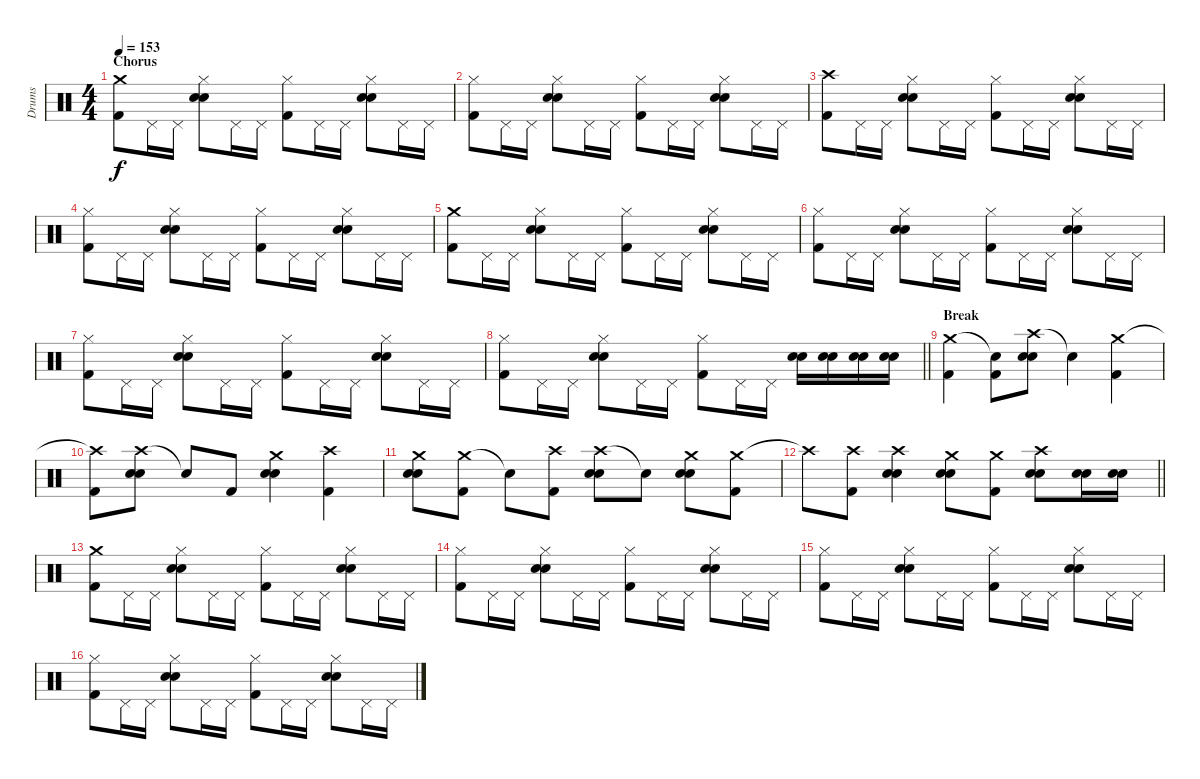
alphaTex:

\track ("Drums" "Drums") {instrument percussion}
\staff {score}
\articulation defaults
\ts (4 4)
\section ("" "Chorus")
\tempo 153
\clef neutral
\ks c
("Crash medium (hit)" "Kick (hit) 2").8{dy f} "Pedal Hi-Hat (hit)".16 "Pedal Hi-Hat (hit)".16 ("Hi-Hat (closed)" "Electric Snare (hit)" "Snare (hit) 2").8 "Pedal Hi-Hat (hit)".16 "Pedal Hi-Hat (hit)".16 ("Hi-Hat (closed)" "Kick (hit) 2").8 "Pedal Hi-Hat (hit)".16 "Pedal Hi-Hat (hit)".16 ("Hi-Hat (closed)" "Electric Snare (hit)" "Snare (hit) 2").8 "Pedal Hi-Hat (hit)".16 "Pedal Hi-Hat (hit)".16 |
("Hi-Hat (closed)" "Kick (hit) 2").8 "Pedal Hi-Hat (hit)".16 "Pedal Hi-Hat (hit)".16 ("Hi-Hat (closed)" "Electric Snare (hit)" "Snare (hit) 2").8 "Pedal Hi-Hat (hit)".16 "Pedal Hi-Hat (hit)".16 ("Hi-Hat (closed)" "Kick (hit) 2").8 "Pedal Hi-Hat (hit)".16 "Pedal Hi-Hat (hit)".16 ("Hi-Hat (closed)" "Electric Snare (hit)" "Snare (hit) 2").8 "Pedal Hi-Hat (hit)".16 "Pedal Hi-Hat (hit)".16 |
("Crash high (hit)" "Kick (hit) 2").8 "Pedal Hi-Hat (hit)".16 "Pedal Hi-Hat (hit)".16 ("Hi-Hat (closed)" "Electric Snare (hit)" "Snare (hit) 2").8 "Pedal Hi-Hat (hit)".16 "Pedal Hi-Hat (hit)".16 ("Hi-Hat (closed)" "Kick (hit) 2").8 "Pedal Hi-Hat (hit)".16 "Pedal Hi-Hat (hit)".16 ("Hi-Hat (closed)" "Electric Snare (hit)" "Snare (hit) 2").8 "Pedal Hi-Hat (hit)".16 "Pedal Hi-Hat (hit)".16 |
("Hi-Hat (closed)" "Kick (hit) 2").8 "Pedal Hi-Hat (hit)".16 "Pedal Hi-Hat (hit)".16 ("Hi-Hat (closed)" "Electric Snare (hit)" "Snare (hit) 2").8 "Pedal Hi-Hat (hit)".16 "Pedal Hi-Hat (hit)".16 ("Hi-Hat (closed)" "Kick (hit) 2").8 "Pedal Hi-Hat (hit)".16 "Pedal Hi-Hat (hit)".16 ("Hi-Hat (closed)" "Electric Snare (hit)" "Snare (hit) 2").8 "Pedal Hi-Hat (hit)".16 "Pedal Hi-Hat (hit)".16 |
("Crash medium (hit)" "Kick (hit) 2").8 "Pedal Hi-Hat (hit)".16 "Pedal Hi-Hat (hit)".16 ("Hi-Hat (closed)" "Electric Snare (hit)" "Snare (hit) 2").8 "Pedal Hi-Hat (hit)".16 "Pedal Hi-Hat (hit)".16 ("Hi-Hat (closed)" "Kick (hit) 2").8 "Pedal Hi-Hat (hit)".16 "Pedal Hi-Hat (hit)".16 ("Hi-Hat (closed)" "Electric Snare (hit)" "Snare (hit) 2").8 "Pedal Hi-Hat (hit)".16 "Pedal Hi-Hat (hit)".16 |
("Hi-Hat (closed)" "Kick (hit) 2").8 "Pedal Hi-Hat (hit)".16 "Pedal Hi-Hat (hit)".16 ("Hi-Hat (closed)" "Electric Snare (hit)" "Snare (hit) 2").8 "Pedal Hi-Hat (hit)".16 "Pedal Hi-Hat (hit)".16 ("Hi-Hat (closed)" "Kick (hit) 2").8 "Pedal Hi-Hat (hit)".16 "Pedal Hi-Hat (hit)".16 ("Hi-Hat (closed)" "Electric Snare (hit)" "Snare (hit) 2").8 "Pedal Hi-Hat (hit)".16 "Pedal Hi-Hat (hit)".16 |
("Hi-Hat (closed)" "Kick (hit) 2").8 "Pedal Hi-Hat (hit)".16 "Pedal Hi-Hat (hit)".16 ("Hi-Hat (closed)" "Electric Snare (hit)" "Snare (hit) 2").8 "Pedal Hi-Hat (hit)".16 "Pedal Hi-Hat (hit)".16 ("Hi-Hat (closed)" "Kick (hit) 2").8 "Pedal Hi-Hat (hit)".16 "Pedal Hi-Hat (hit)".16 ("Hi-Hat (closed)" "Electric Snare (hit)" "Snare (hit) 2").8 "Pedal Hi-Hat (hit)".16 "Pedal Hi-Hat (hit)".16 |
\barLineRight lightlight
("Hi-Hat (closed)" "Kick (hit) 2").8 "Pedal Hi-Hat (hit)".16 "Pedal Hi-Hat (hit)".16 ("Hi-Hat (closed)" "Electric Snare (hit)" "Snare (hit) 2").8 "Pedal Hi-Hat (hit)".16 "Pedal Hi-Hat (hit)".16 ("Hi-Hat (closed)" "Kick (hit) 2").8 "Pedal Hi-Hat (hit)".16 "Pedal Hi-Hat (hit)".16 ("Electric Snare (hit)" "Snare (hit) 2").16 ("Electric Snare (hit)" "Snare (hit) 2").16 ("Electric Snare (hit)" "Snare (hit) 2").16 ("Electric Snare (hit)" "Snare (hit) 2").16 |
\section ("" "Break")
("Crash medium (hit)" "Kick (hit) 2").4 ("Snare (hit)"{t} "Kick (hit) 2").8 ("Crash high (hit)" "Electric Snare (hit)" "Snare (hit) 2").8 "Snare (hit)"{t}.4 ("Crash medium (hit)" "Kick (hit) 2").4 |
("Crash high (hit)"{t} "Kick (hit) 2").8 ("Crash high (hit)" "Electric Snare (hit)" "Snare (hit) 2").8 "Snare (hit)"{t}.8 "Kick (hit) 2".8 ("Crash medium (hit)" "Electric Snare (hit)" "Snare (hit) 2").4 ("Crash high (hit)" "Kick (hit) 2").4 |
("Crash medium (hit)" "Electric Snare (hit)" "Snare (hit) 2").8 ("Crash medium (hit)" "Kick (hit) 2").8 "Snare (hit)"{t}.8 ("Crash high (hit)" "Kick (hit) 2").8 ("Crash high (hit)" "Electric Snare (hit)" "Snare (hit) 2").8 "Snare (hit)"{t}.8 ("Crash medium (hit)" "Electric Snare (hit)" "Snare (hit) 2").8 ("Crash medium (hit)" "Kick (hit) 2").8 |
\barLineRight lightlight "Crash high (hit)"{t}.8
("Crash high (hit)" "Kick (hit) 2").8 ("Crash high (hit)" "Electric Snare (hit)" "Snare (hit) 2").4 ("Crash medium (hit)" "Electric Snare (hit)" "Snare (hit) 2").8 ("Crash medium (hit)" "Kick (hit) 2").8 ("Crash high (hit)" "Electric Snare (hit)" "Snare (hit) 2").8 ("Electric Snare (hit)" "Snare (hit) 2").16 ("Electric Snare (hit)" "Snare (hit) 2").16 |
\section ("" "")
("Crash medium (hit)" "Kick (hit) 2").8 "Pedal Hi-Hat (hit)".16 "Pedal Hi-Hat (hit)".16 ("Hi-Hat (closed)" "Electric Snare (hit)" "Snare (hit) 2").8 "Pedal Hi-Hat (hit)".16 "Pedal Hi-Hat (hit)".16 ("Hi-Hat (closed)" "Kick (hit) 2").8 "Pedal Hi-Hat (hit)".16 "Pedal Hi-Hat (hit)".16 ("Hi-Hat (closed)" "Electric Snare (hit)" "Snare (hit) 2").8 "Pedal Hi-Hat (hit)".16 "Pedal Hi-Hat (hit)".16 |
("Hi-Hat (closed)" "Kick (hit) 2").8 "Pedal Hi-Hat (hit)".16 "Pedal Hi-Hat (hit)".16 ("Hi-Hat (closed)" "Electric Snare (hit)" "Snare (hit) 2").8 "Pedal Hi-Hat (hit)".16 "Pedal Hi-Hat (hit)".16 ("Hi-Hat (closed)" "Kick (hit) 2").8 "Pedal Hi-Hat (hit)".16 "Pedal Hi-Hat (hit)".16 ("Hi-Hat (closed)" "Electric Snare (hit)" "Snare (hit) 2").8 "Pedal Hi-Hat (hit)".16 "Pedal Hi-Hat (hit)".16 |
("Hi-Hat (closed)" "Kick (hit) 2").8 "Pedal Hi-Hat (hit)".16 "Pedal Hi-Hat (hit)".16 ("Hi-Hat (closed)" "Electric Snare (hit)" "Snare (hit) 2").8 "Pedal Hi-Hat (hit)".16 "Pedal Hi-Hat (hit)".16 ("Hi-Hat (closed)" "Kick (hit) 2").8 "Pedal Hi-Hat (hit)".16 "Pedal Hi-Hat (hit)".16 ("Hi-Hat (closed)" "Electric Snare (hit)" "Snare (hit) 2").8 "Pedal Hi-Hat (hit)".16 "Pedal Hi-Hat (hit)".16 |
("Hi-Hat (closed)" "Kick (hit) 2").8 "Pedal Hi-Hat (hit)".16 "Pedal Hi-Hat (hit)".16 ("Hi-Hat (closed)" "Electric Snare (hit)" "Snare (hit) 2").8 "Pedal Hi-Hat (hit)".16 "Pedal Hi-Hat (hit)".16 ("Hi-Hat (closed)" "Kick (hit) 2").8 "Pedal Hi-Hat (hit)".16 "Pedal Hi-Hat (hit)".16 ("Hi-Hat (closed)" "Electric Snare (hit)" "Snare (hit) 2").8 "Pedal Hi-Hat (hit)".16 "Pedal Hi-Hat (hit)".16
